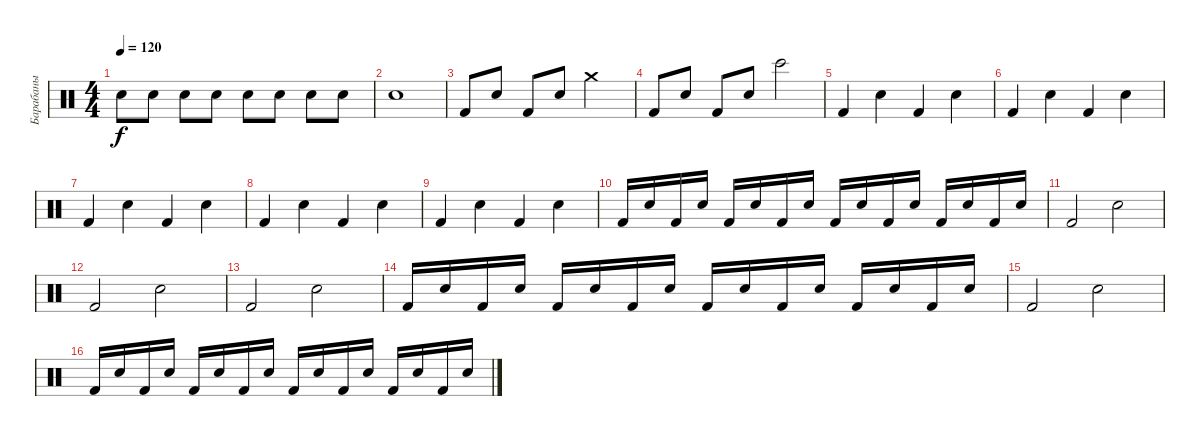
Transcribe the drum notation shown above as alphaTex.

\track ("Барабаны" "Барабаны") {instrument percussion}
\staff {score}
\articulation defaults
\ts (4 4)
\tempo 120
\clef neutral
\ks c "Metronome (bell)".8{dy f} "Metronome (bell)".8 "Metronome (bell)".8 "Metronome (bell)".8 "Metronome (bell)".8 "Metronome (bell)".8 "Metronome (bell)".8 "Metronome (bell)".8
|
"Snare (hit) 2".1 |
"Kick (hit) 2".8 "Snare (hit) 2".8 "Kick (hit) 2".8 "Snare (hit) 2".8 "Crash medium (hit)".2 |
"Kick (hit) 2".8 "Snare (hit) 2".8 "Kick (hit) 2".8 "Snare (hit) 2".8 "Bongo High (hit)".2 |
"Kick (hit) 2".4 "Hand Clap (hit)".4 "Kick (hit) 2".4 "Hand Clap (hit)".4 |
"Kick (hit) 2".4 "Hand Clap (hit)".4 "Kick (hit) 2".4 "Hand Clap (hit)".4 |
"Kick (hit) 2".4 "Hand Clap (hit)".4 "Kick (hit) 2".4 "Hand Clap (hit)".4 |
"Kick (hit) 2".4 "Hand Clap (hit)".4 "Kick (hit) 2".4 "Hand Clap (hit)".4 |
"Kick (hit) 2".4 "Hand Clap (hit)".4 "Kick (hit) 2".4 "Hand Clap (hit)".4 |
"Kick (hit) 2".16 "Snare (hit) 2".16 "Kick (hit) 2".16 "Snare (hit) 2".16 "Kick (hit) 2".16 "Snare (hit) 2".16 "Kick (hit) 2".16 "Snare (hit) 2".16 "Kick (hit) 2".16 "Snare (hit) 2".16 "Kick (hit) 2".16 "Snare (hit) 2".16 "Kick (hit) 2".16 "Snare (hit) 2".16 "Kick (hit) 2".16 "Snare (hit) 2".16 |
"Kick (hit) 2".2 "Snare (hit) 2".2 |
"Kick (hit) 2".2 "Snare (hit) 2".2 |
"Kick (hit) 2".2 "Snare (hit) 2".2 |
"Kick (hit) 2".16 "Snare (hit) 2".16 "Kick (hit) 2".16 "Snare (hit) 2".16 "Kick (hit) 2".16 "Snare (hit) 2".16 "Kick (hit) 2".16 "Snare (hit) 2".16 "Kick (hit) 2".16 "Snare (hit) 2".16 "Kick (hit) 2".16 "Snare (hit) 2".16 "Kick (hit) 2".16 "Snare (hit) 2".16 "Kick (hit) 2".16 "Snare (hit) 2".16 |
"Kick (hit) 2".2 "Snare (hit) 2".2 |
"Kick (hit) 2".16 "Snare (hit) 2".16 "Kick (hit) 2".16 "Snare (hit) 2".16 "Kick (hit) 2".16 "Snare (hit) 2".16 "Kick (hit) 2".16 "Snare (hit) 2".16 "Kick (hit) 2".16 "Snare (hit) 2".16 "Kick (hit) 2".16 "Snare (hit) 2".16 "Kick (hit) 2".16 "Snare (hit) 2".16 "Kick (hit) 2".16 "Snare (hit) 2".16
